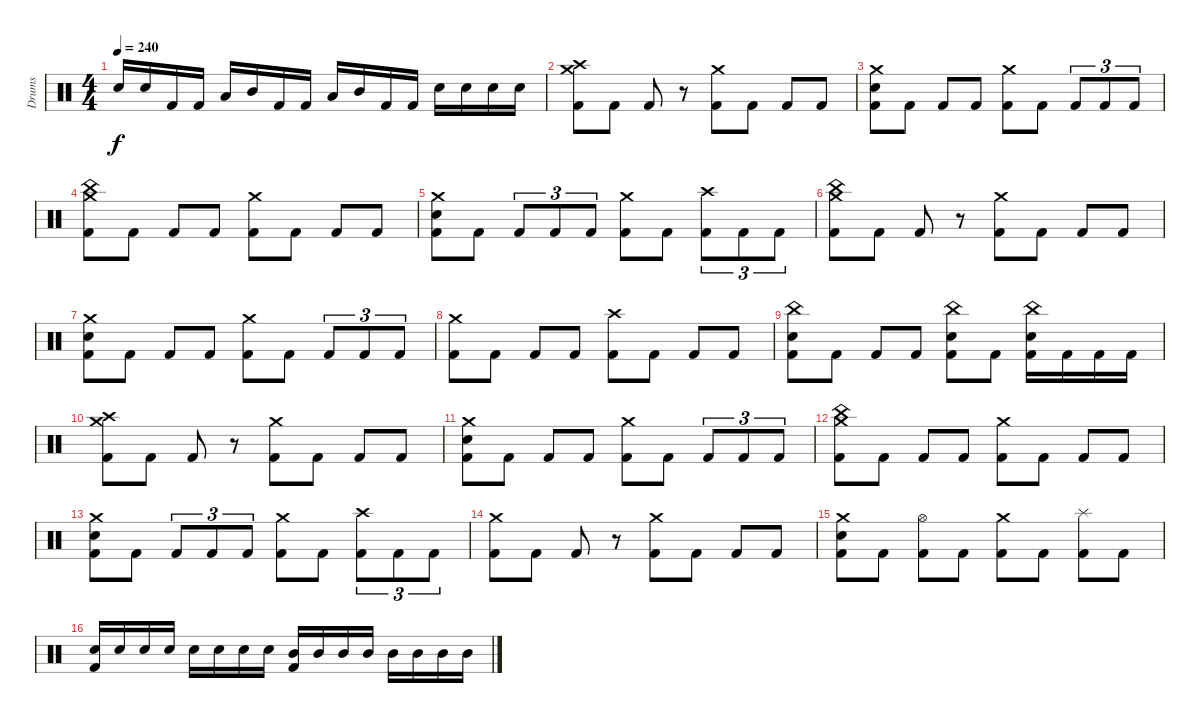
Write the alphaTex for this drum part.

\track ("Drums" "Drums") {instrument percussion}
\staff {score}
\articulation defaults
\ts (4 4)
\tempo 240
\clef neutral
\ks c "Electric Snare (hit)".16{dy f} "Electric Snare (hit)".16 "Kick (hit) 2".16 "Kick (hit) 2".16 "Low Tom (hit)".16 "Mid Tom (hit)".16 "Kick (hit) 2".16 "Kick (hit) 2".16 "Low Tom (hit)".16 "Mid Tom (hit)".16 "Kick (hit) 2".16 "Kick (hit) 2".16 "Electric Snare (hit)".16 "Electric Snare (hit)".16 "Electric Snare (hit)".16 "Electric Snare (hit)".16
|
("Crash medium (hit)" "Crash high (hit)" "Kick (hit) 2").8 "Kick (hit) 2".8 "Kick (hit) 2".8 r.8 ("Crash medium (hit)" "Kick (hit) 2").8 "Kick (hit) 2".8 "Kick (hit) 2".8 "Kick (hit) 2".8 |
("Crash medium (hit)" "Electric Snare (hit)" "Kick (hit) 2").8 "Kick (hit) 2".8 "Kick (hit) 2".8 "Kick (hit) 2".8 ("Crash medium (hit)" "Kick (hit) 2").8 "Kick (hit) 2".8 "Kick (hit) 2".8{tu (3 2)} "Kick (hit) 2".8{tu (3 2)} "Kick (hit) 2".8{tu (3 2)} |
("Crash medium (hit)" "China (hit)" "Kick (hit) 2").8 "Kick (hit) 2".8 "Kick (hit) 2".8 "Kick (hit) 2".8 ("Crash medium (hit)" "Kick (hit) 2").8 "Kick (hit) 2".8 "Kick (hit) 2".8 "Kick (hit) 2".8 |
("Crash medium (hit)" "Electric Snare (hit)" "Kick (hit) 2").8 "Kick (hit) 2".8 "Kick (hit) 2".8{tu (3 2)} "Kick (hit) 2".8{tu (3 2)} "Kick (hit) 2".8{tu (3 2)} ("Crash medium (hit)" "Kick (hit) 2").8 "Kick (hit) 2".8 ("Crash high (hit)" "Kick (hit) 2").8{tu (3 2)} "Kick (hit) 2".8{tu (3 2)} "Kick (hit) 2".8{tu (3 2)} |
("Crash medium (hit)" "China (hit)" "Kick (hit) 2").8 "Kick (hit) 2".8 "Kick (hit) 2".8 r.8 ("Crash medium (hit)" "Kick (hit) 2").8 "Kick (hit) 2".8 "Kick (hit) 2".8 "Kick (hit) 2".8 |
("Crash medium (hit)" "Electric Snare (hit)" "Kick (hit) 2").8 "Kick (hit) 2".8 "Kick (hit) 2".8 "Kick (hit) 2".8 ("Crash medium (hit)" "Kick (hit) 2").8 "Kick (hit) 2".8 "Kick (hit) 2".8{tu (3 2)} "Kick (hit) 2".8{tu (3 2)} "Kick (hit) 2".8{tu (3 2)} |
("Crash medium (hit)" "Kick (hit) 2").8 "Kick (hit) 2".8 "Kick (hit) 2".8 "Kick (hit) 2".8 ("Crash high (hit)" "Kick (hit) 2").8 "Kick (hit) 2".8 "Kick (hit) 2".8 "Kick (hit) 2".8 |
("China (hit)" "Electric Snare (hit)" "Kick (hit) 2").8 "Kick (hit) 2".8 "Kick (hit) 2".8 "Kick (hit) 2".8 ("China (hit)" "Electric Snare (hit)" "Kick (hit) 2").8 "Kick (hit) 2".8 ("China (hit)" "Electric Snare (hit)" "Kick (hit) 2").16 "Kick (hit) 2".16 "Kick (hit) 2".16 "Kick (hit) 2".16 |
("Crash medium (hit)" "Crash high (hit)" "Kick (hit) 2").8 "Kick (hit) 2".8 "Kick (hit) 2".8 r.8 ("Crash medium (hit)" "Kick (hit) 2").8 "Kick (hit) 2".8 "Kick (hit) 2".8 "Kick (hit) 2".8 |
("Crash medium (hit)" "Electric Snare (hit)" "Kick (hit) 2").8 "Kick (hit) 2".8 "Kick (hit) 2".8 "Kick (hit) 2".8 ("Crash medium (hit)" "Kick (hit) 2").8 "Kick (hit) 2".8 "Kick (hit) 2".8{tu (3 2)} "Kick (hit) 2".8{tu (3 2)} "Kick (hit) 2".8{tu (3 2)} |
("Crash medium (hit)" "China (hit)" "Kick (hit) 2").8 "Kick (hit) 2".8 "Kick (hit) 2".8 "Kick (hit) 2".8 ("Crash medium (hit)" "Kick (hit) 2").8 "Kick (hit) 2".8 "Kick (hit) 2".8 "Kick (hit) 2".8 |
("Crash medium (hit)" "Electric Snare (hit)" "Kick (hit) 2").8 "Kick (hit) 2".8 "Kick (hit) 2".8{tu (3 2)} "Kick (hit) 2".8{tu (3 2)} "Kick (hit) 2".8{tu (3 2)} ("Crash medium (hit)" "Kick (hit) 2").8 "Kick (hit) 2".8 ("Crash high (hit)" "Kick (hit) 2").8{tu (3 2)} "Kick (hit) 2".8{tu (3 2)} "Kick (hit) 2".8{tu (3 2)} |
("Crash medium (hit)" "Kick (hit) 2").8 "Kick (hit) 2".8 "Kick (hit) 2".8 r.8 ("Crash medium (hit)" "Kick (hit) 2").8 "Kick (hit) 2".8 "Kick (hit) 2".8 "Kick (hit) 2".8 |
("Crash medium (hit)" "Electric Snare (hit)" "Kick (hit) 2").8 "Kick (hit) 2".8 ("Hi-Hat (open)" "Kick (hit) 2").8 "Kick (hit) 2".8 ("Crash medium (hit)" "Kick (hit) 2").8 "Kick (hit) 2".8 ("Splash (hit)" "Kick (hit) 2").8 "Kick (hit) 2".8 |
("Electric Snare (hit)" "Kick (hit) 2").16 "Electric Snare (hit)".16 "Electric Snare (hit)".16 "Electric Snare (hit)".16 "Electric Snare (hit)".16 "Electric Snare (hit)".16 "Electric Snare (hit)".16 "Electric Snare (hit)".16 ("Mid Tom (hit)" "Kick (hit) 2").16 "Mid Tom (hit)".16 "Mid Tom (hit)".16 "Mid Tom (hit)".16 "Mid Tom (hit)".16 "Mid Tom (hit)".16 "Mid Tom (hit)".16 "Mid Tom (hit)".16
